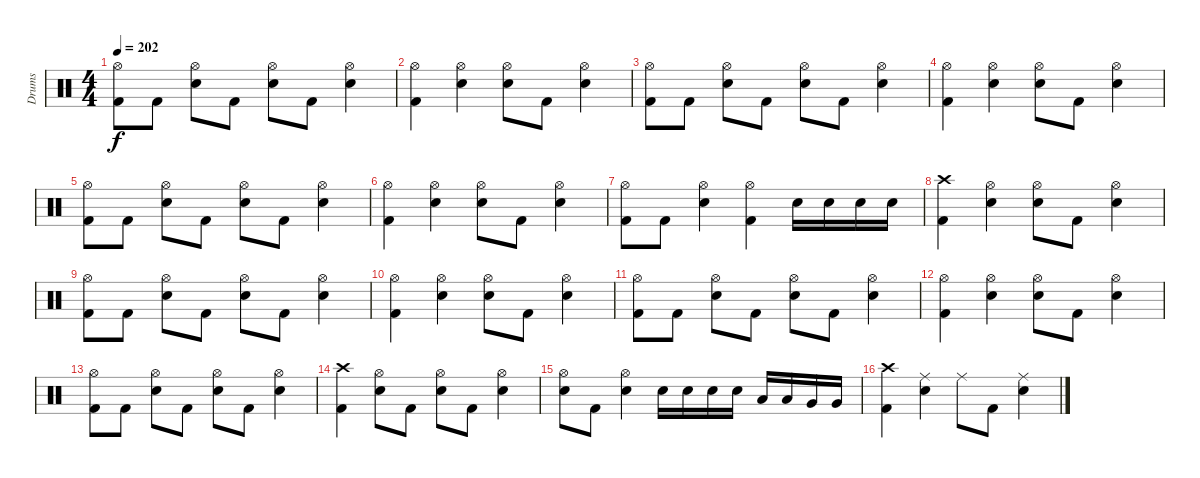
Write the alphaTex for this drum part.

\track ("Drums" "Drums") {instrument percussion}
\staff {score}
\articulation defaults
\ts (4 4)
\tempo 202
\clef neutral
\ks c
("Hi-Hat (open)" "Kick (hit) 2").8{dy f} "Kick (hit) 2".8 ("Hi-Hat (open)" "Electric Snare (hit)").8 "Kick (hit) 2".8 ("Hi-Hat (open)" "Electric Snare (hit)").8 "Kick (hit) 2".8 ("Hi-Hat (open)" "Electric Snare (hit)").4 |
("Hi-Hat (open)" "Kick (hit) 2").4 ("Hi-Hat (open)" "Electric Snare (hit)").4 ("Hi-Hat (open)" "Electric Snare (hit)").8 "Kick (hit) 2".8 ("Hi-Hat (open)" "Electric Snare (hit)").4 |
("Hi-Hat (open)" "Kick (hit) 2").8 "Kick (hit) 2".8 ("Hi-Hat (open)" "Electric Snare (hit)").8 "Kick (hit) 2".8 ("Hi-Hat (open)" "Electric Snare (hit)").8 "Kick (hit) 2".8 ("Hi-Hat (open)" "Electric Snare (hit)").4 |
("Hi-Hat (open)" "Kick (hit) 2").4 ("Hi-Hat (open)" "Electric Snare (hit)").4 ("Hi-Hat (open)" "Electric Snare (hit)").8 "Kick (hit) 2".8 ("Hi-Hat (open)" "Electric Snare (hit)").4 |
("Hi-Hat (open)" "Kick (hit) 2").8 "Kick (hit) 2".8 ("Hi-Hat (open)" "Electric Snare (hit)").8 "Kick (hit) 2".8 ("Hi-Hat (open)" "Electric Snare (hit)").8 "Kick (hit) 2".8 ("Hi-Hat (open)" "Electric Snare (hit)").4 |
("Hi-Hat (open)" "Kick (hit) 2").4 ("Hi-Hat (open)" "Electric Snare (hit)").4 ("Hi-Hat (open)" "Electric Snare (hit)").8 "Kick (hit) 2".8 ("Hi-Hat (open)" "Electric Snare (hit)").4 |
("Hi-Hat (open)" "Kick (hit) 2").8 "Kick (hit) 2".8 ("Hi-Hat (open)" "Electric Snare (hit)").4 ("Hi-Hat (open)" "Kick (hit) 2").4 "Electric Snare (hit)".16 "Electric Snare (hit)".16 "Electric Snare (hit)".16 "Electric Snare (hit)".16 |
("Crash high (hit)" "Kick (hit) 2").4 ("Hi-Hat (open)" "Electric Snare (hit)").4 ("Hi-Hat (open)" "Electric Snare (hit)").8 "Kick (hit) 2".8 ("Hi-Hat (open)" "Electric Snare (hit)").4 |
("Hi-Hat (open)" "Kick (hit) 2").8 "Kick (hit) 2".8 ("Hi-Hat (open)" "Electric Snare (hit)").8 "Kick (hit) 2".8 ("Hi-Hat (open)" "Electric Snare (hit)").8 "Kick (hit) 2".8 ("Hi-Hat (open)" "Electric Snare (hit)").4 |
("Hi-Hat (open)" "Kick (hit) 2").4 ("Hi-Hat (open)" "Electric Snare (hit)").4 ("Hi-Hat (open)" "Electric Snare (hit)").8 "Kick (hit) 2".8 ("Hi-Hat (open)" "Electric Snare (hit)").4 |
("Hi-Hat (open)" "Kick (hit) 2").8 "Kick (hit) 2".8 ("Hi-Hat (open)" "Electric Snare (hit)").8 "Kick (hit) 2".8 ("Hi-Hat (open)" "Electric Snare (hit)").8 "Kick (hit) 2".8 ("Hi-Hat (open)" "Electric Snare (hit)").4 |
("Hi-Hat (open)" "Kick (hit) 2").4 ("Hi-Hat (open)" "Electric Snare (hit)").4 ("Hi-Hat (open)" "Electric Snare (hit)").8 "Kick (hit) 2".8 ("Hi-Hat (open)" "Electric Snare (hit)").4 |
("Hi-Hat (open)" "Kick (hit) 2").8 "Kick (hit) 2".8 ("Hi-Hat (open)" "Electric Snare (hit)").8 "Kick (hit) 2".8 ("Hi-Hat (open)" "Electric Snare (hit)").8 "Kick (hit) 2".8 ("Hi-Hat (open)" "Electric Snare (hit)").4 |
("Crash high (hit)" "Kick (hit) 2").4 ("Hi-Hat (open)" "Electric Snare (hit)").8 "Kick (hit) 2".8 ("Hi-Hat (open)" "Electric Snare (hit)").8 "Kick (hit) 2".8 ("Hi-Hat (open)" "Electric Snare (hit)").4 |
("Hi-Hat (open)" "Electric Snare (hit)").8 "Kick (hit) 2".8 ("Hi-Hat (open)" "Electric Snare (hit)").4 "Electric Snare (hit)".16 "Electric Snare (hit)".16 "Electric Snare (hit)".16 "Electric Snare (hit)".16 "Low Tom (hit)".16 "Low Tom (hit)".16 "Very Low Tom (hit)".16 "Very Low Tom (hit)".16 |
("Crash high (hit)" "Kick (hit) 2").4 ("Ride (middle)" "Electric Snare (hit)").4 "Ride (middle)".8 "Kick (hit) 2".8 ("Ride (middle)" "Electric Snare (hit)").4
